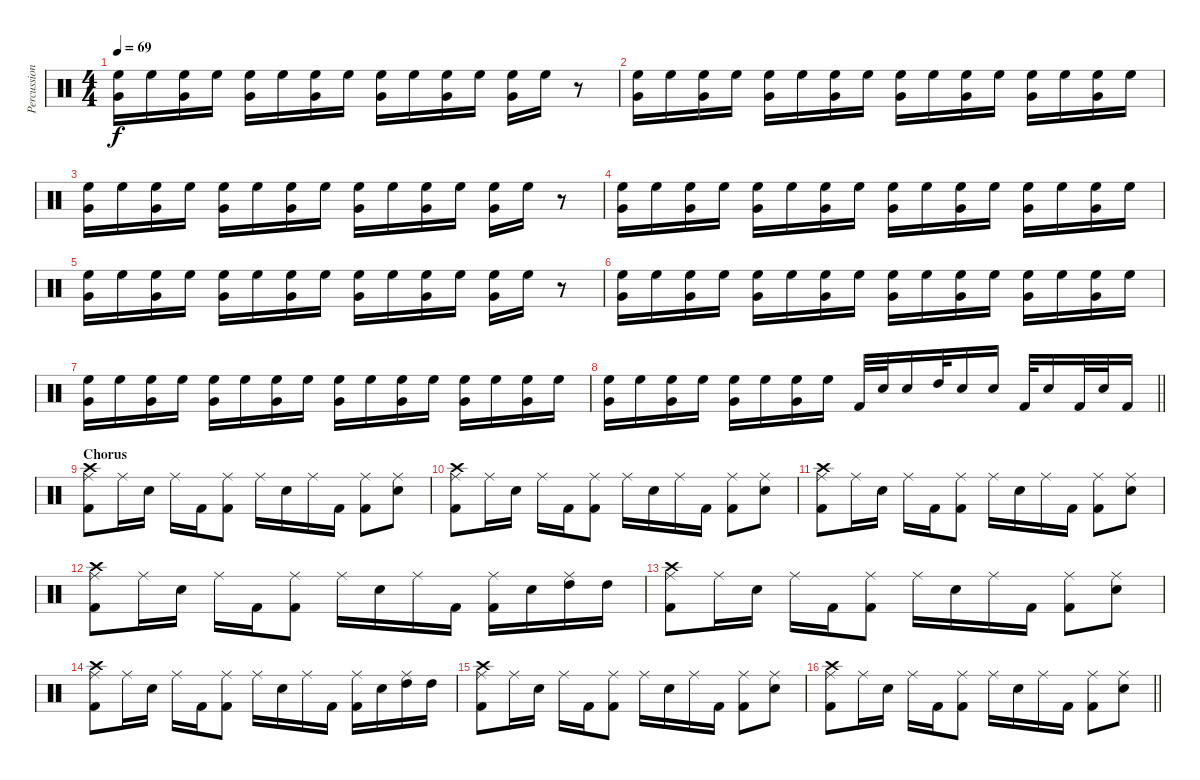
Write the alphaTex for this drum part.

\track ("Percussion" "Percussion") {instrument percussion}
\staff {score}
\articulation defaults
\ts (4 4)
\tempo 69
\clef neutral
\ks c
("High Floor Tom (hit)" "Very Low Tom (hit)").16{dy f volume 8} "High Floor Tom (hit)".16 ("High Floor Tom (hit)" "Very Low Tom (hit)").16 "High Floor Tom (hit)".16 ("High Floor Tom (hit)" "Very Low Tom (hit)").16 "High Floor Tom (hit)".16 ("High Floor Tom (hit)" "Very Low Tom (hit)").16 "High Floor Tom (hit)".16 ("High Floor Tom (hit)" "Very Low Tom (hit)").16 "High Floor Tom (hit)".16 ("High Floor Tom (hit)" "Very Low Tom (hit)").16 "High Floor Tom (hit)".16 ("High Floor Tom (hit)" "Very Low Tom (hit)").16 "High Floor Tom (hit)".16 r.8 |
("High Floor Tom (hit)" "Very Low Tom (hit)").16 "High Floor Tom (hit)".16 ("High Floor Tom (hit)" "Very Low Tom (hit)").16 "High Floor Tom (hit)".16 ("High Floor Tom (hit)" "Very Low Tom (hit)").16 "High Floor Tom (hit)".16 ("High Floor Tom (hit)" "Very Low Tom (hit)").16 "High Floor Tom (hit)".16 ("High Floor Tom (hit)" "Very Low Tom (hit)").16 "High Floor Tom (hit)".16 ("High Floor Tom (hit)" "Very Low Tom (hit)").16 "High Floor Tom (hit)".16 ("High Floor Tom (hit)" "Very Low Tom (hit)").16 "High Floor Tom (hit)".16 ("High Floor Tom (hit)" "Very Low Tom (hit)").16 "High Floor Tom (hit)".16 |
("High Floor Tom (hit)" "Very Low Tom (hit)").16 "High Floor Tom (hit)".16 ("High Floor Tom (hit)" "Very Low Tom (hit)").16 "High Floor Tom (hit)".16 ("High Floor Tom (hit)" "Very Low Tom (hit)").16 "High Floor Tom (hit)".16 ("High Floor Tom (hit)" "Very Low Tom (hit)").16 "High Floor Tom (hit)".16 ("High Floor Tom (hit)" "Very Low Tom (hit)").16 "High Floor Tom (hit)".16 ("High Floor Tom (hit)" "Very Low Tom (hit)").16 "High Floor Tom (hit)".16 ("High Floor Tom (hit)" "Very Low Tom (hit)").16 "High Floor Tom (hit)".16 r.8 |
("High Floor Tom (hit)" "Very Low Tom (hit)").16 "High Floor Tom (hit)".16 ("High Floor Tom (hit)" "Very Low Tom (hit)").16 "High Floor Tom (hit)".16 ("High Floor Tom (hit)" "Very Low Tom (hit)").16 "High Floor Tom (hit)".16 ("High Floor Tom (hit)" "Very Low Tom (hit)").16 "High Floor Tom (hit)".16 ("High Floor Tom (hit)" "Very Low Tom (hit)").16 "High Floor Tom (hit)".16 ("High Floor Tom (hit)" "Very Low Tom (hit)").16 "High Floor Tom (hit)".16 ("High Floor Tom (hit)" "Very Low Tom (hit)").16 "High Floor Tom (hit)".16 ("High Floor Tom (hit)" "Very Low Tom (hit)").16 "High Floor Tom (hit)".16 |
("High Floor Tom (hit)" "Very Low Tom (hit)").16 "High Floor Tom (hit)".16 ("High Floor Tom (hit)" "Very Low Tom (hit)").16 "High Floor Tom (hit)".16 ("High Floor Tom (hit)" "Very Low Tom (hit)").16 "High Floor Tom (hit)".16 ("High Floor Tom (hit)" "Very Low Tom (hit)").16 "High Floor Tom (hit)".16 ("High Floor Tom (hit)" "Very Low Tom (hit)").16 "High Floor Tom (hit)".16 ("High Floor Tom (hit)" "Very Low Tom (hit)").16 "High Floor Tom (hit)".16 ("High Floor Tom (hit)" "Very Low Tom (hit)").16 "High Floor Tom (hit)".16 r.8 |
("High Floor Tom (hit)" "Very Low Tom (hit)").16 "High Floor Tom (hit)".16 ("High Floor Tom (hit)" "Very Low Tom (hit)").16 "High Floor Tom (hit)".16 ("High Floor Tom (hit)" "Very Low Tom (hit)").16 "High Floor Tom (hit)".16 ("High Floor Tom (hit)" "Very Low Tom (hit)").16 "High Floor Tom (hit)".16 ("High Floor Tom (hit)" "Very Low Tom (hit)").16 "High Floor Tom (hit)".16 ("High Floor Tom (hit)" "Very Low Tom (hit)").16 "High Floor Tom (hit)".16 ("High Floor Tom (hit)" "Very Low Tom (hit)").16 "High Floor Tom (hit)".16 ("High Floor Tom (hit)" "Very Low Tom (hit)").16 "High Floor Tom (hit)".16 |
("High Floor Tom (hit)" "Very Low Tom (hit)").16 "High Floor Tom (hit)".16 ("High Floor Tom (hit)" "Very Low Tom (hit)").16 "High Floor Tom (hit)".16 ("High Floor Tom (hit)" "Very Low Tom (hit)").16 "High Floor Tom (hit)".16 ("High Floor Tom (hit)" "Very Low Tom (hit)").16 "High Floor Tom (hit)".16 ("High Floor Tom (hit)" "Very Low Tom (hit)").16 "High Floor Tom (hit)".16 ("High Floor Tom (hit)" "Very Low Tom (hit)").16 "High Floor Tom (hit)".16 ("High Floor Tom (hit)" "Very Low Tom (hit)").16 "High Floor Tom (hit)".16 ("High Floor Tom (hit)" "Very Low Tom (hit)").16 "High Floor Tom (hit)".16 |
\barLineRight lightlight
("High Floor Tom (hit)" "Very Low Tom (hit)").16 "High Floor Tom (hit)".16 ("High Floor Tom (hit)" "Very Low Tom (hit)").16 "High Floor Tom (hit)".16 ("High Floor Tom (hit)" "Very Low Tom (hit)").16 "High Floor Tom (hit)".16 ("High Floor Tom (hit)" "Very Low Tom (hit)").16 "High Floor Tom (hit)".16 "Kick (hit) 2".32 "Electric Snare (hit)".32 "Electric Snare (hit)".16 "High Tom (hit)".32 "Electric Snare (hit)".16 "Electric Snare (hit)".16 "Kick (hit) 2".32 "Electric Snare (hit)".16 "Kick (hit) 2".32 "Electric Snare (hit)".32 "Kick (hit) 2".16 |
\section ("" "Chorus")
("Ride (middle)" "Crash high (hit)" "Kick (hit) 2").8{volume 13} "Ride (middle)".16 "Electric Snare (hit)".16 "Ride (middle)".16 "Kick (hit) 2".16 ("Ride (middle)" "Kick (hit) 2").8 "Ride (middle)".16 "Electric Snare (hit)".16 "Ride (middle)".16 "Kick (hit) 2".16 ("Ride (middle)" "Kick (hit) 2").8 ("Ride (middle)" "Electric Snare (hit)").8 |
("Ride (middle)" "Crash high (hit)" "Kick (hit) 2").8 "Ride (middle)".16 "Electric Snare (hit)".16 "Ride (middle)".16 "Kick (hit) 2".16 ("Ride (middle)" "Kick (hit) 2").8 "Ride (middle)".16 "Electric Snare (hit)".16 "Ride (middle)".16 "Kick (hit) 2".16 ("Ride (middle)" "Kick (hit) 2").8 ("Ride (middle)" "Electric Snare (hit)").8 |
("Ride (middle)" "Crash high (hit)" "Kick (hit) 2").8 "Ride (middle)".16 "Electric Snare (hit)".16 "Ride (middle)".16 "Kick (hit) 2".16 ("Ride (middle)" "Kick (hit) 2").8 "Ride (middle)".16 "Electric Snare (hit)".16 "Ride (middle)".16 "Kick (hit) 2".16 ("Ride (middle)" "Kick (hit) 2").8 ("Ride (middle)" "Electric Snare (hit)").8 |
("Ride (middle)" "Crash high (hit)" "Kick (hit) 2").8 "Ride (middle)".16 "Electric Snare (hit)".16 "Ride (middle)".16 "Kick (hit) 2".16 ("Ride (middle)" "Kick (hit) 2").8 "Ride (middle)".16 "Electric Snare (hit)".16 "Ride (middle)".16 "Kick (hit) 2".16 ("Ride (middle)" "Kick (hit) 2").16 "Electric Snare (hit)".16 ("Ride (middle)" "High Tom (hit)").16 "High Tom (hit)".16 |
("Ride (middle)" "Crash high (hit)" "Kick (hit) 2").8 "Ride (middle)".16 "Electric Snare (hit)".16 "Ride (middle)".16 "Kick (hit) 2".16 ("Ride (middle)" "Kick (hit) 2").8 "Ride (middle)".16 "Electric Snare (hit)".16 "Ride (middle)".16 "Kick (hit) 2".16 ("Ride (middle)" "Kick (hit) 2").8 ("Ride (middle)" "Electric Snare (hit)").8 |
("Ride (middle)" "Crash high (hit)" "Kick (hit) 2").8 "Ride (middle)".16 "Electric Snare (hit)".16 "Ride (middle)".16 "Kick (hit) 2".16 ("Ride (middle)" "Kick (hit) 2").8 "Ride (middle)".16 "Electric Snare (hit)".16 "Ride (middle)".16 "Kick (hit) 2".16 ("Ride (middle)" "Kick (hit) 2").16 "Electric Snare (hit)".16 ("Ride (middle)" "High Tom (hit)").16 "High Tom (hit)".16 |
("Ride (middle)" "Crash high (hit)" "Kick (hit) 2").8 "Ride (middle)".16 "Electric Snare (hit)".16 "Ride (middle)".16 "Kick (hit) 2".16 ("Ride (middle)" "Kick (hit) 2").8 "Ride (middle)".16 "Electric Snare (hit)".16 "Ride (middle)".16 "Kick (hit) 2".16 ("Ride (middle)" "Kick (hit) 2").8 ("Ride (middle)" "Electric Snare (hit)").8 |
\barLineRight lightlight
("Ride (middle)" "Crash high (hit)" "Kick (hit) 2").8 "Ride (middle)".16 "Electric Snare (hit)".16 "Ride (middle)".16 "Kick (hit) 2".16 ("Ride (middle)" "Kick (hit) 2").8 "Ride (middle)".16 "Electric Snare (hit)".16 "Ride (middle)".16 "Kick (hit) 2".16 ("Ride (middle)" "Kick (hit) 2").8 ("Ride (middle)" "Electric Snare (hit)").8
